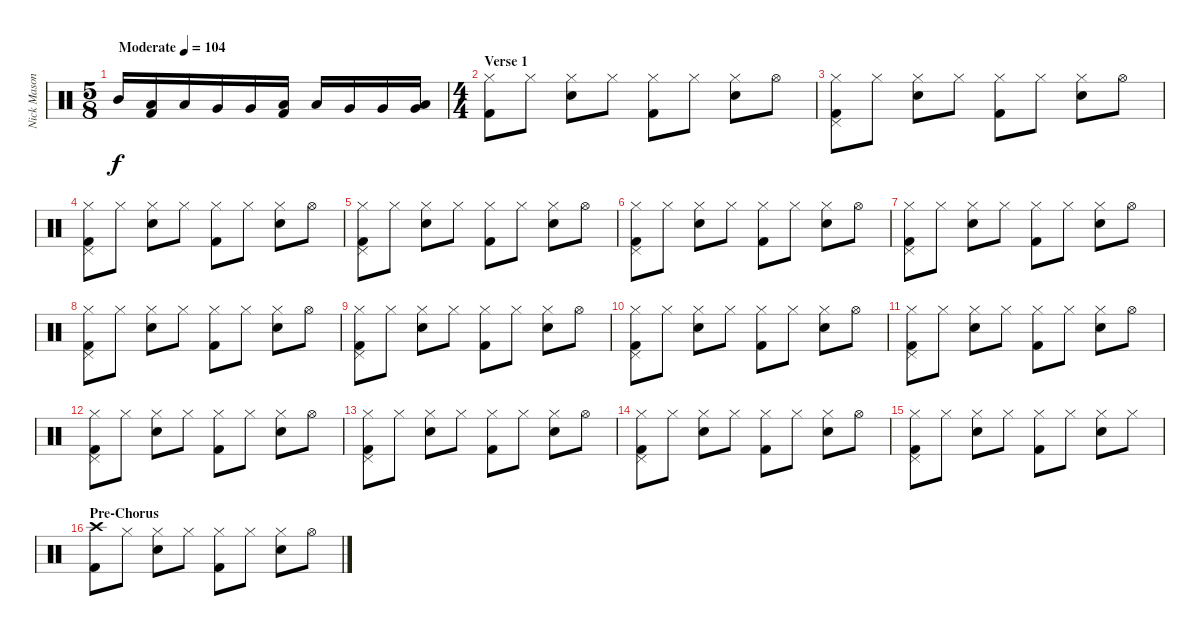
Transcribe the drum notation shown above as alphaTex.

\track ("Nick Mason | Ludwig Drumkit | Drums" "Nick Mason") {instrument percussion}
\staff {score}
\articulation defaults
\ts (5 8)
\tempo (104 "Moderate")
\clef neutral
\ks c "Mid Tom (hit)".16{dy f}
("Low Floor Tom (hit)" "Kick (hit) 2").16 "Low Floor Tom (hit)".16 "Very Low Tom (hit)".16 "Very Low Tom (hit)".16 ("Low Floor Tom (hit)" "Kick (hit) 2").16 "Low Tom (hit)".16 "Very Low Tom (hit)".16 "Very Low Tom (hit)".16 ("Low Tom (hit)" "Very Low Tom (hit)").16 |
\ts (4 4)
\section ("" "Verse 1")
("Hi-Hat (closed)" "Kick (hit) 2").8 "Hi-Hat (closed)".8 ("Hi-Hat (closed)" "Snare (hit) 2").8 "Hi-Hat (closed)".8 ("Hi-Hat (closed)" "Kick (hit) 2").8 "Hi-Hat (closed)".8 ("Hi-Hat (closed)" "Snare (hit) 2").8 "Hi-Hat (open)".8 |
("Hi-Hat (closed)" "Kick (hit) 2" "Pedal Hi-Hat (hit)").8 "Hi-Hat (closed)".8 ("Hi-Hat (closed)" "Snare (hit) 2").8 "Hi-Hat (closed)".8 ("Hi-Hat (closed)" "Kick (hit) 2").8 "Hi-Hat (closed)".8 ("Hi-Hat (closed)" "Snare (hit) 2").8 "Hi-Hat (open)".8 |
("Hi-Hat (closed)" "Kick (hit) 2" "Pedal Hi-Hat (hit)").8 "Hi-Hat (closed)".8 ("Hi-Hat (closed)" "Snare (hit) 2").8 "Hi-Hat (closed)".8 ("Hi-Hat (closed)" "Kick (hit) 2").8 "Hi-Hat (closed)".8 ("Hi-Hat (closed)" "Snare (hit) 2").8 "Hi-Hat (open)".8 |
("Hi-Hat (closed)" "Kick (hit) 2" "Pedal Hi-Hat (hit)").8 "Hi-Hat (closed)".8 ("Hi-Hat (closed)" "Snare (hit) 2").8 "Hi-Hat (closed)".8 ("Hi-Hat (closed)" "Kick (hit) 2").8 "Hi-Hat (closed)".8 ("Hi-Hat (closed)" "Snare (hit) 2").8 "Hi-Hat (open)".8 |
("Hi-Hat (closed)" "Kick (hit) 2" "Pedal Hi-Hat (hit)").8 "Hi-Hat (closed)".8 ("Hi-Hat (closed)" "Snare (hit) 2").8 "Hi-Hat (closed)".8 ("Hi-Hat (closed)" "Kick (hit) 2").8 "Hi-Hat (closed)".8 ("Hi-Hat (closed)" "Snare (hit) 2").8 "Hi-Hat (open)".8 |
("Hi-Hat (closed)" "Kick (hit) 2" "Pedal Hi-Hat (hit)").8 "Hi-Hat (closed)".8 ("Hi-Hat (closed)" "Snare (hit) 2").8 "Hi-Hat (closed)".8 ("Hi-Hat (closed)" "Kick (hit) 2").8 "Hi-Hat (closed)".8 ("Hi-Hat (closed)" "Snare (hit) 2").8 "Hi-Hat (open)".8 |
("Hi-Hat (closed)" "Kick (hit) 2" "Pedal Hi-Hat (hit)").8 "Hi-Hat (closed)".8 ("Hi-Hat (closed)" "Snare (hit) 2").8 "Hi-Hat (closed)".8 ("Hi-Hat (closed)" "Kick (hit) 2").8 "Hi-Hat (closed)".8 ("Hi-Hat (closed)" "Snare (hit) 2").8 "Hi-Hat (open)".8 |
("Hi-Hat (closed)" "Kick (hit) 2" "Pedal Hi-Hat (hit)").8 "Hi-Hat (closed)".8 ("Hi-Hat (closed)" "Snare (hit) 2").8 "Hi-Hat (closed)".8 ("Hi-Hat (closed)" "Kick (hit) 2").8 "Hi-Hat (closed)".8 ("Hi-Hat (closed)" "Snare (hit) 2").8 "Hi-Hat (open)".8 |
("Hi-Hat (closed)" "Kick (hit) 2" "Pedal Hi-Hat (hit)").8 "Hi-Hat (closed)".8 ("Hi-Hat (closed)" "Snare (hit) 2").8 "Hi-Hat (closed)".8 ("Hi-Hat (closed)" "Kick (hit) 2").8 "Hi-Hat (closed)".8 ("Hi-Hat (closed)" "Snare (hit) 2").8 "Hi-Hat (open)".8 |
("Hi-Hat (closed)" "Kick (hit) 2" "Pedal Hi-Hat (hit)").8 "Hi-Hat (closed)".8 ("Hi-Hat (closed)" "Snare (hit) 2").8 "Hi-Hat (closed)".8 ("Hi-Hat (closed)" "Kick (hit) 2").8 "Hi-Hat (closed)".8 ("Hi-Hat (closed)" "Snare (hit) 2").8 "Hi-Hat (open)".8 |
("Hi-Hat (closed)" "Kick (hit) 2" "Pedal Hi-Hat (hit)").8 "Hi-Hat (closed)".8 ("Hi-Hat (closed)" "Snare (hit) 2").8 "Hi-Hat (closed)".8 ("Hi-Hat (closed)" "Kick (hit) 2").8 "Hi-Hat (closed)".8 ("Hi-Hat (closed)" "Snare (hit) 2").8 "Hi-Hat (open)".8 |
("Hi-Hat (closed)" "Kick (hit) 2" "Pedal Hi-Hat (hit)").8 "Hi-Hat (closed)".8 ("Hi-Hat (closed)" "Snare (hit) 2").8 "Hi-Hat (closed)".8 ("Hi-Hat (closed)" "Kick (hit) 2").8 "Hi-Hat (closed)".8 ("Hi-Hat (closed)" "Snare (hit) 2").8 "Hi-Hat (open)".8 |
("Hi-Hat (closed)" "Kick (hit) 2" "Pedal Hi-Hat (hit)").8 "Hi-Hat (closed)".8 ("Hi-Hat (closed)" "Snare (hit) 2").8 "Hi-Hat (closed)".8 ("Hi-Hat (closed)" "Kick (hit) 2").8 "Hi-Hat (closed)".8 ("Hi-Hat (closed)" "Snare (hit) 2").8 "Hi-Hat (open)".8 |
("Hi-Hat (closed)" "Kick (hit) 2" "Pedal Hi-Hat (hit)").8 "Hi-Hat (closed)".8 ("Hi-Hat (closed)" "Snare (hit) 2").8 "Hi-Hat (closed)".8 ("Hi-Hat (closed)" "Kick (hit) 2").8 "Hi-Hat (closed)".8 ("Hi-Hat (closed)" "Snare (hit) 2").8 "Hi-Hat (closed)".8 |
\section ("" "Pre-Chorus")
("Crash high (hit)" "Kick (hit) 2").8 "Hi-Hat (closed)".8 ("Hi-Hat (closed)" "Snare (hit) 2").8 "Hi-Hat (closed)".8 ("Hi-Hat (closed)" "Kick (hit) 2").8 "Hi-Hat (closed)".8 ("Hi-Hat (closed)" "Snare (hit) 2").8 "Hi-Hat (open)".8
